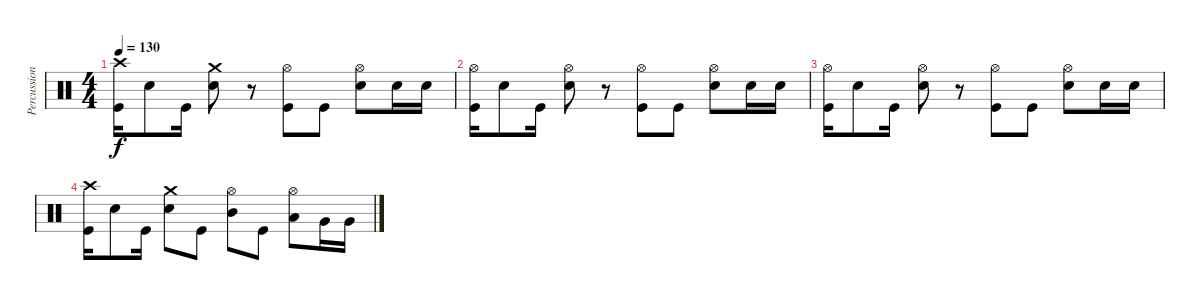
\track ("Percussion" "Percussion") {instrument percussion}
\staff {score}
\articulation defaults
\ts (4 4)
\tempo 130
\clef neutral
\ks c
("Crash high (hit)" "Kick (hit)").16{dy f} "Electric Snare (hit)".8 "Kick (hit)".16 ("Crash medium (hit)" "Electric Snare (hit)").8 r.8 ("Hi-Hat (open)" "Kick (hit)").8 "Kick (hit)".8 ("Hi-Hat (open)" "Electric Snare (hit)").8 "Electric Snare (hit)".16 "Electric Snare (hit)".16 |
("Hi-Hat (open)" "Kick (hit)").16 "Electric Snare (hit)".8 "Kick (hit)".16 ("Hi-Hat (open)" "Electric Snare (hit)").8 r.8 ("Hi-Hat (open)" "Kick (hit)").8 "Kick (hit)".8 ("Hi-Hat (open)" "Electric Snare (hit)").8 "Electric Snare (hit)".16 "Electric Snare (hit)".16 |
("Hi-Hat (open)" "Kick (hit)").16 "Electric Snare (hit)".8 "Kick (hit)".16 ("Hi-Hat (open)" "Electric Snare (hit)").8 r.8 ("Hi-Hat (open)" "Kick (hit)").8 "Kick (hit)".8 ("Hi-Hat (open)" "Electric Snare (hit)").8 "Electric Snare (hit)".16 "Electric Snare (hit)".16 |
("Crash high (hit)" "Kick (hit)").16 "Electric Snare (hit)".8 "Kick (hit)".16 ("Crash medium (hit)" "Electric Snare (hit)").8 "Kick (hit)".8 ("Hi-Hat (open)" "Mid Tom (hit)").8 "Kick (hit)".8 ("Hi-Hat (open)" "Low Tom (hit)").8 "Very Low Tom (hit)".16 "Very Low Tom (hit)".16
